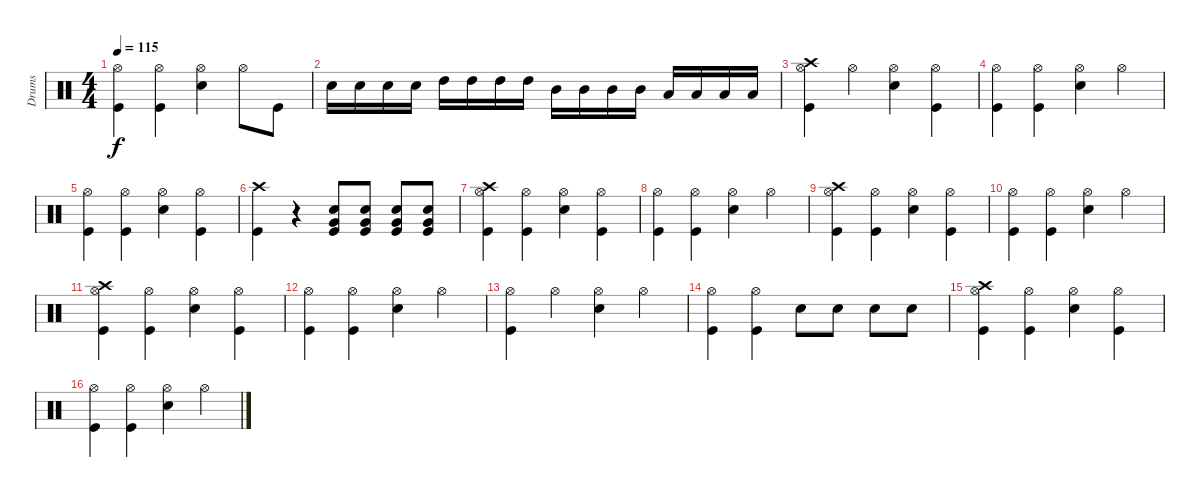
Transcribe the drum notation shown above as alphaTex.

\track ("Drums" "Drums") {instrument percussion}
\staff {score}
\articulation defaults
\ts (4 4)
\tempo 115
\clef neutral
\ks c
("Hi-Hat (open)" "Kick (hit)").4{dy f} ("Hi-Hat (open)" "Kick (hit)").4 ("Hi-Hat (open)" "Snare (hit) 2").4 "Hi-Hat (open)".8 "Kick (hit)".8 |
"Snare (hit) 2".16 "Snare (hit) 2".16 "Snare (hit) 2".16 "Snare (hit) 2".16 "High Tom (hit)".16 "High Tom (hit)".16 "High Tom (hit)".16 "High Tom (hit)".16 "Mid Tom (hit)".16 "Mid Tom (hit)".16 "Mid Tom (hit)".16 "Mid Tom (hit)".16 "Low Tom (hit)".16 "Low Tom (hit)".16 "Low Tom (hit)".16 "Low Tom (hit)".16 |
("Crash high (hit)" "Hi-Hat (open)" "Kick (hit)").4 "Hi-Hat (open)".4 ("Hi-Hat (open)" "Snare (hit) 2").4 ("Hi-Hat (open)" "Kick (hit)").4 |
("Hi-Hat (open)" "Kick (hit)").4 ("Hi-Hat (open)" "Kick (hit)").4 ("Hi-Hat (open)" "Snare (hit) 2").4 "Hi-Hat (open)".4 |
("Hi-Hat (open)" "Kick (hit)").4 ("Hi-Hat (open)" "Kick (hit)").4 ("Hi-Hat (open)" "Snare (hit) 2").4 ("Hi-Hat (open)" "Kick (hit)").4 |
("Crash high (hit)" "Kick (hit)").4 r.4 ("Snare (hit) 2" "Very Low Tom (hit)" "Kick (hit)").8 ("Snare (hit) 2" "Very Low Tom (hit)" "Kick (hit)").8 ("Snare (hit) 2" "Very Low Tom (hit)" "Kick (hit)").8 ("Snare (hit) 2" "Very Low Tom (hit)" "Kick (hit)").8 |
("Crash high (hit)" "Hi-Hat (open)" "Kick (hit)").4 ("Hi-Hat (open)" "Kick (hit)").4 ("Hi-Hat (open)" "Snare (hit) 2").4 ("Hi-Hat (open)" "Kick (hit)").4 |
("Hi-Hat (open)" "Kick (hit)").4 ("Hi-Hat (open)" "Kick (hit)").4 ("Hi-Hat (open)" "Snare (hit) 2").4 "Hi-Hat (open)".4 |
("Crash high (hit)" "Hi-Hat (open)" "Kick (hit)").4 ("Hi-Hat (open)" "Kick (hit)").4 ("Hi-Hat (open)" "Snare (hit) 2").4 ("Hi-Hat (open)" "Kick (hit)").4 |
("Hi-Hat (open)" "Kick (hit)").4 ("Hi-Hat (open)" "Kick (hit)").4 ("Hi-Hat (open)" "Snare (hit) 2").4 "Hi-Hat (open)".4 |
("Crash high (hit)" "Hi-Hat (open)" "Kick (hit)").4 ("Hi-Hat (open)" "Kick (hit)").4 ("Hi-Hat (open)" "Snare (hit) 2").4 ("Hi-Hat (open)" "Kick (hit)").4 |
("Hi-Hat (open)" "Kick (hit)").4 ("Hi-Hat (open)" "Kick (hit)").4 ("Hi-Hat (open)" "Snare (hit) 2").4 "Hi-Hat (open)".4 |
("Hi-Hat (open)" "Kick (hit)").4 "Hi-Hat (open)".4 ("Hi-Hat (open)" "Snare (hit) 2").4 "Hi-Hat (open)".4 |
("Hi-Hat (open)" "Kick (hit)").4 ("Hi-Hat (open)" "Kick (hit)").4 "Snare (hit) 2".8 "Snare (hit) 2".8 "Snare (hit) 2".8 "Snare (hit) 2".8 |
("Crash high (hit)" "Hi-Hat (open)" "Kick (hit)").4 ("Hi-Hat (open)" "Kick (hit)").4 ("Hi-Hat (open)" "Snare (hit) 2").4 ("Hi-Hat (open)" "Kick (hit)").4 |
("Hi-Hat (open)" "Kick (hit)").4 ("Hi-Hat (open)" "Kick (hit)").4 ("Hi-Hat (open)" "Snare (hit) 2").4 "Hi-Hat (open)".4
